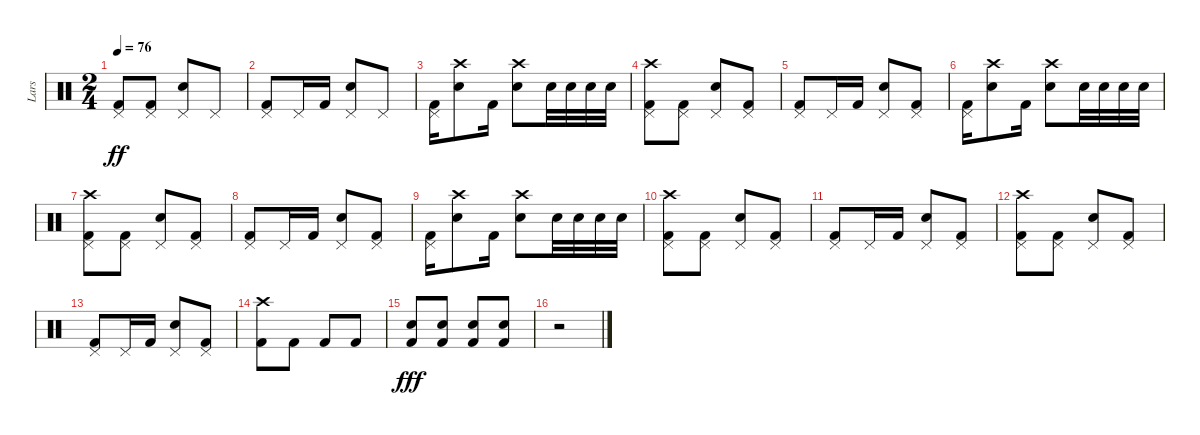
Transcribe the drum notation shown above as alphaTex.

\track ("Lars" "Lars") {instrument percussion}
\staff {score}
\articulation defaults
\ts (2 4)
\tempo 76
\clef neutral
\ks c
("Pedal Hi-Hat (hit)" "Kick (hit) 2").8{dy ff} ("Pedal Hi-Hat (hit)" "Kick (hit) 2").8 ("Pedal Hi-Hat (hit)" "Snare (hit) 2").8 "Pedal Hi-Hat (hit)".8 |
("Pedal Hi-Hat (hit)" "Kick (hit) 2").8 "Pedal Hi-Hat (hit)".16 "Kick (hit) 2".16 ("Pedal Hi-Hat (hit)" "Snare (hit) 2").8 "Pedal Hi-Hat (hit)".8 |
("Pedal Hi-Hat (hit)" "Kick (hit) 2").16 ("Crash high (hit)" "Snare (hit) 2").8 "Kick (hit) 2".16 ("Crash high (hit)" "Snare (hit) 2").8 "Snare (hit) 2".32 "Snare (hit) 2".32 "Snare (hit) 2".32 "Snare (hit) 2".32 |
("Pedal Hi-Hat (hit)" "Crash high (hit)" "Kick (hit) 2").8 ("Pedal Hi-Hat (hit)" "Kick (hit) 2").8 ("Pedal Hi-Hat (hit)" "Snare (hit) 2").8 ("Pedal Hi-Hat (hit)" "Kick (hit) 2").8 |
("Pedal Hi-Hat (hit)" "Kick (hit) 2").8 "Pedal Hi-Hat (hit)".16 "Kick (hit) 2".16 ("Pedal Hi-Hat (hit)" "Snare (hit) 2").8 ("Pedal Hi-Hat (hit)" "Kick (hit) 2").8 |
("Pedal Hi-Hat (hit)" "Kick (hit) 2").16 ("Crash high (hit)" "Snare (hit) 2").8 "Kick (hit) 2".16 ("Crash high (hit)" "Snare (hit) 2").8 "Snare (hit) 2".32 "Snare (hit) 2".32 "Snare (hit) 2".32 "Snare (hit) 2".32 |
("Pedal Hi-Hat (hit)" "Crash high (hit)" "Kick (hit) 2").8 ("Pedal Hi-Hat (hit)" "Kick (hit) 2").8 ("Pedal Hi-Hat (hit)" "Snare (hit) 2").8 ("Pedal Hi-Hat (hit)" "Kick (hit) 2").8 |
("Pedal Hi-Hat (hit)" "Kick (hit) 2").8 "Pedal Hi-Hat (hit)".16 "Kick (hit) 2".16 ("Pedal Hi-Hat (hit)" "Snare (hit) 2").8 ("Pedal Hi-Hat (hit)" "Kick (hit) 2").8 |
("Pedal Hi-Hat (hit)" "Kick (hit) 2").16 ("Crash high (hit)" "Snare (hit) 2").8 "Kick (hit) 2".16 ("Crash high (hit)" "Snare (hit) 2").8 "Snare (hit) 2".32 "Snare (hit) 2".32 "Snare (hit) 2".32 "Snare (hit) 2".32 |
("Pedal Hi-Hat (hit)" "Crash high (hit)" "Kick (hit) 2").8 ("Pedal Hi-Hat (hit)" "Kick (hit) 2").8 ("Pedal Hi-Hat (hit)" "Snare (hit) 2").8 ("Pedal Hi-Hat (hit)" "Kick (hit) 2").8 |
("Pedal Hi-Hat (hit)" "Kick (hit) 2").8 "Pedal Hi-Hat (hit)".16 "Kick (hit) 2".16 ("Pedal Hi-Hat (hit)" "Snare (hit) 2").8 ("Pedal Hi-Hat (hit)" "Kick (hit) 2").8 |
("Pedal Hi-Hat (hit)" "Crash high (hit)" "Kick (hit) 2").8 ("Pedal Hi-Hat (hit)" "Kick (hit) 2").8 ("Pedal Hi-Hat (hit)" "Snare (hit) 2").8 ("Pedal Hi-Hat (hit)" "Kick (hit) 2").8 |
("Pedal Hi-Hat (hit)" "Kick (hit) 2").8 "Pedal Hi-Hat (hit)".16 "Kick (hit) 2".16 ("Pedal Hi-Hat (hit)" "Snare (hit) 2").8 ("Pedal Hi-Hat (hit)" "Kick (hit) 2").8 |
("Crash high (hit)" "Kick (hit) 2").8 "Kick (hit) 2".8 "Kick (hit) 2".8 "Kick (hit) 2".8 |
("Snare (hit) 2" "Kick (hit) 2").8{dy fff} ("Snare (hit) 2" "Kick (hit) 2").8 ("Snare (hit) 2" "Kick (hit) 2").8 ("Snare (hit) 2" "Kick (hit) 2").8 |
r.2
